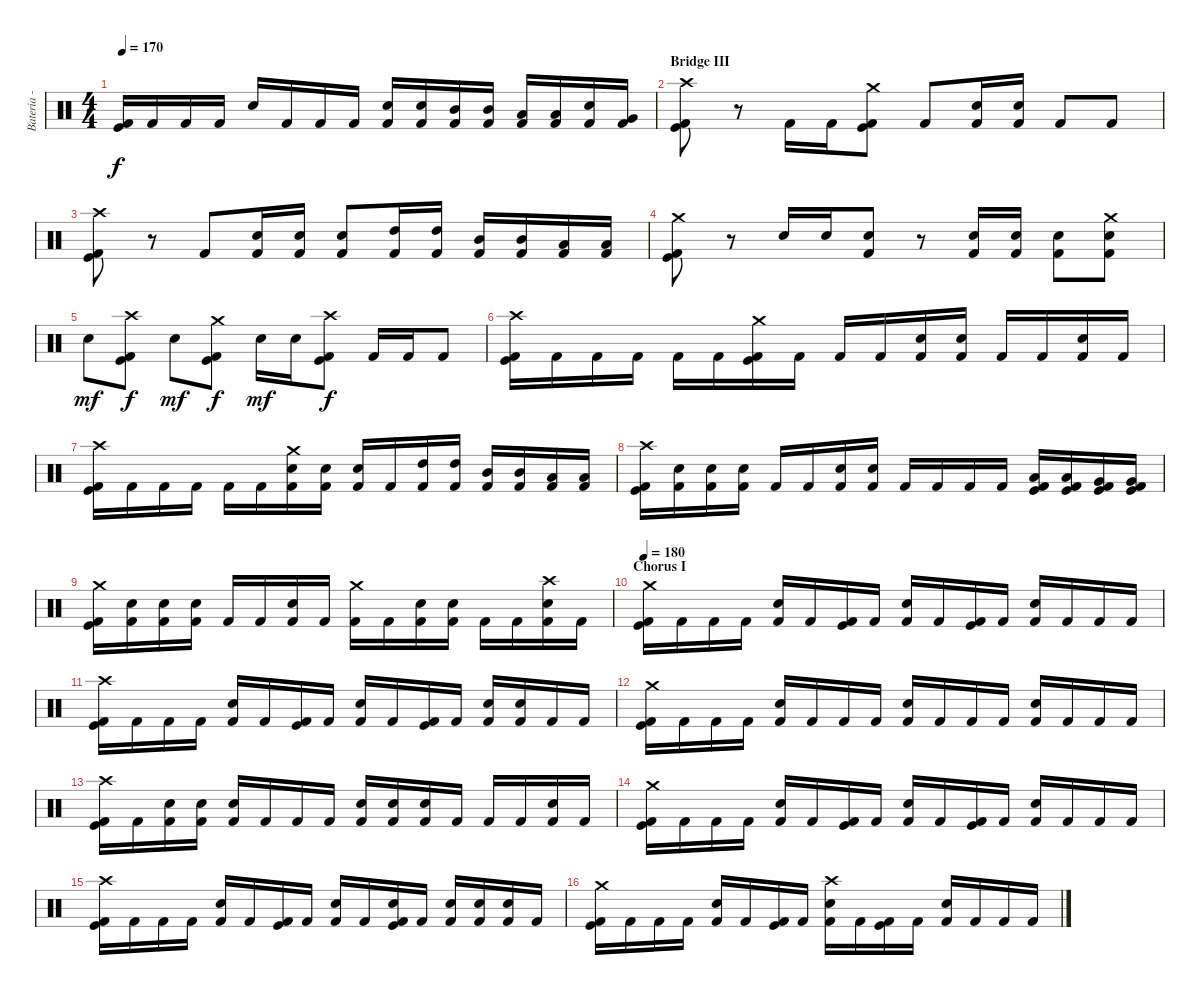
\track ("Bateria - Drums" "Bateria - ") {instrument percussion}
\staff {score}
\articulation defaults
\ts (4 4)
\tempo 170
\clef neutral
\ks c
("Kick (hit)" "Kick (hit) 2").16{dy f} "Kick (hit) 2".16 "Kick (hit) 2".16 "Kick (hit) 2".16 "Snare (hit) 2".16 "Kick (hit) 2".16 "Kick (hit) 2".16 "Kick (hit) 2".16 ("Electric Snare (hit)" "Kick (hit) 2").16 ("Electric Snare (hit)" "Kick (hit) 2").16 ("Mid Tom (hit)" "Kick (hit) 2").16 ("Mid Tom (hit)" "Kick (hit) 2").16 ("Low Tom (hit)" "Kick (hit) 2").16 ("Low Tom (hit)" "Kick (hit) 2").16 ("Electric Snare (hit)" "Kick (hit) 2").16 ("Very Low Tom (hit)" "Kick (hit) 2").16 |
\section ("" "Bridge III")
("Crash high (hit)" "Kick (hit)" "Kick (hit) 2").8 r.8 "Kick (hit) 2".16 "Kick (hit) 2".16 ("Crash medium (hit)" "Kick (hit)" "Kick (hit) 2").8 "Kick (hit) 2".8 ("Electric Snare (hit)" "Kick (hit) 2").16 ("Electric Snare (hit)" "Kick (hit) 2").16 "Kick (hit) 2".8 "Kick (hit) 2".8 |
("Crash high (hit)" "Kick (hit)" "Kick (hit) 2").8 r.8 "Kick (hit) 2".8 ("Electric Snare (hit)" "Kick (hit) 2").16 ("Electric Snare (hit)" "Kick (hit) 2").16 ("Electric Snare (hit)" "Kick (hit) 2").8 ("High Tom (hit)" "Kick (hit) 2").16 ("High Tom (hit)" "Kick (hit) 2").16 ("Mid Tom (hit)" "Kick (hit) 2").16 ("Mid Tom (hit)" "Kick (hit) 2").16 ("Low Tom (hit)" "Kick (hit) 2").16 ("Low Tom (hit)" "Kick (hit) 2").16 |
("Crash medium (hit)" "Kick (hit)" "Kick (hit) 2").8 r.8 "Electric Snare (hit)".16 "Electric Snare (hit)".16 ("Electric Snare (hit)" "Kick (hit) 2").8 r.8 ("Snare (hit) 2" "Kick (hit) 2").16 ("Snare (hit) 2" "Kick (hit) 2").16 ("Snare (hit) 2" "Kick (hit) 2").8 ("Crash medium (hit)" "Snare (hit) 2" "Kick (hit) 2").8 |
"Snare (hit) 2".8{dy mf} ("Crash high (hit)" "Kick (hit)" "Kick (hit) 2").8{dy f} "Snare (hit) 2".8{dy mf} ("Crash medium (hit)" "Kick (hit)" "Kick (hit) 2").8{dy f} "Snare (hit) 2".16{dy mf} "Snare (hit) 2".16 ("Crash high (hit)" "Kick (hit)" "Kick (hit) 2").8{dy f} "Kick (hit) 2".16 "Kick (hit) 2".16 "Kick (hit) 2".8 |
("Crash high (hit)" "Kick (hit)" "Kick (hit) 2").16 "Kick (hit) 2".16 "Kick (hit) 2".16 "Kick (hit) 2".16 "Kick (hit) 2".16 "Kick (hit) 2".16 ("Crash medium (hit)" "Kick (hit)" "Kick (hit) 2").16 "Kick (hit) 2".16 "Kick (hit) 2".16 "Kick (hit) 2".16 ("Electric Snare (hit)" "Kick (hit) 2").16 ("Electric Snare (hit)" "Kick (hit) 2").16 "Kick (hit) 2".16 "Kick (hit) 2".16 ("Electric Snare (hit)" "Kick (hit) 2").16 "Kick (hit) 2".16 |
("Crash high (hit)" "Kick (hit)" "Kick (hit) 2").16 "Kick (hit) 2".16 "Kick (hit) 2".16 "Kick (hit) 2".16 "Kick (hit) 2".16 "Kick (hit) 2".16 ("Crash medium (hit)" "Electric Snare (hit)" "Kick (hit) 2").16 ("Electric Snare (hit)" "Kick (hit) 2").16 ("Electric Snare (hit)" "Kick (hit) 2").16 "Kick (hit) 2".16 ("High Tom (hit)" "Kick (hit) 2").16 ("High Tom (hit)" "Kick (hit) 2").16 ("Mid Tom (hit)" "Kick (hit) 2").16 ("Mid Tom (hit)" "Kick (hit) 2").16 ("Low Tom (hit)" "Kick (hit) 2").16 ("Low Tom (hit)" "Kick (hit) 2").16 |
("Crash high (hit)" "Kick (hit)" "Kick (hit) 2").16 ("Snare (hit) 2" "Kick (hit) 2").16 ("Snare (hit) 2" "Kick (hit) 2").16 ("Snare (hit) 2" "Kick (hit) 2").16 "Kick (hit) 2".16 "Kick (hit) 2".16 ("Electric Snare (hit)" "Kick (hit) 2").16 ("Electric Snare (hit)" "Kick (hit) 2").16 "Kick (hit) 2".16 "Kick (hit) 2".16 "Kick (hit) 2".16 "Kick (hit) 2".16 ("Low Tom (hit)" "Kick (hit)" "Kick (hit) 2").16 ("Low Tom (hit)" "Kick (hit)" "Kick (hit) 2").16 ("Very Low Tom (hit)" "Kick (hit)" "Kick (hit) 2").16 ("Very Low Tom (hit)" "Kick (hit)" "Kick (hit) 2").16 |
("Crash medium (hit)" "Kick (hit)" "Kick (hit) 2").16 ("Snare (hit) 2" "Kick (hit) 2").16 ("Snare (hit) 2" "Kick (hit) 2").16 ("Snare (hit) 2" "Kick (hit) 2").16 "Kick (hit) 2".16 "Kick (hit) 2".16 ("Electric Snare (hit)" "Kick (hit) 2").16 "Kick (hit) 2".16 ("Crash medium (hit)" "Kick (hit) 2").16 "Kick (hit) 2".16 ("Electric Snare (hit)" "Kick (hit) 2").16 ("Electric Snare (hit)" "Kick (hit) 2").16 "Kick (hit) 2".16 "Kick (hit) 2".16 ("Crash high (hit)" "Snare (hit) 2" "Kick (hit) 2").16 "Kick (hit) 2".16 |
\section ("" "Chorus I")
\tempo 180
("Crash medium (hit)" "Kick (hit)" "Kick (hit) 2").16 "Kick (hit) 2".16 "Kick (hit) 2".16 "Kick (hit) 2".16 ("Snare (hit) 2" "Kick (hit) 2").16 "Kick (hit) 2".16 ("Kick (hit)" "Kick (hit) 2").16 "Kick (hit) 2".16 ("Snare (hit) 2" "Kick (hit) 2").16 "Kick (hit) 2".16 ("Kick (hit)" "Kick (hit) 2").16 "Kick (hit) 2".16 ("Snare (hit) 2" "Kick (hit) 2").16 "Kick (hit) 2".16 "Kick (hit) 2".16 "Kick (hit) 2".16 |
("Crash high (hit)" "Kick (hit)" "Kick (hit) 2").16 "Kick (hit) 2".16 "Kick (hit) 2".16 "Kick (hit) 2".16 ("Snare (hit) 2" "Kick (hit) 2").16 "Kick (hit) 2".16 ("Kick (hit)" "Kick (hit) 2").16 "Kick (hit) 2".16 ("Snare (hit) 2" "Kick (hit) 2").16 "Kick (hit) 2".16 ("Kick (hit)" "Kick (hit) 2").16 "Kick (hit) 2".16 ("Snare (hit) 2" "Kick (hit) 2").16 ("Snare (hit) 2" "Kick (hit) 2").16 "Kick (hit) 2".16 "Kick (hit) 2".16 |
("Crash medium (hit)" "Kick (hit)" "Kick (hit) 2").16 "Kick (hit) 2".16 "Kick (hit) 2".16 "Kick (hit) 2".16 ("Snare (hit) 2" "Kick (hit) 2").16 "Kick (hit) 2".16 "Kick (hit) 2".16 "Kick (hit) 2".16 ("Snare (hit) 2" "Kick (hit) 2").16 "Kick (hit) 2".16 "Kick (hit) 2".16 "Kick (hit) 2".16 ("Snare (hit) 2" "Kick (hit) 2").16 "Kick (hit) 2".16 "Kick (hit) 2".16 "Kick (hit) 2".16 |
("Crash high (hit)" "Kick (hit)" "Kick (hit) 2").16 "Kick (hit) 2".16 ("Electric Snare (hit)" "Kick (hit) 2").16 ("Electric Snare (hit)" "Kick (hit) 2").16 ("Snare (hit) 2" "Kick (hit) 2").16 "Kick (hit) 2".16 "Kick (hit) 2".16 "Kick (hit) 2".16 ("Electric Snare (hit)" "Kick (hit) 2").16 ("Electric Snare (hit)" "Kick (hit) 2").16 ("Electric Snare (hit)" "Kick (hit) 2").16 "Kick (hit) 2".16 "Kick (hit) 2".16 "Kick (hit) 2".16 ("Snare (hit) 2" "Kick (hit) 2").16 "Kick (hit) 2".16 |
("Crash medium (hit)" "Kick (hit)" "Kick (hit) 2").16 "Kick (hit) 2".16 "Kick (hit) 2".16 "Kick (hit) 2".16 ("Snare (hit) 2" "Kick (hit) 2").16 "Kick (hit) 2".16 ("Kick (hit)" "Kick (hit) 2").16 "Kick (hit) 2".16 ("Snare (hit) 2" "Kick (hit) 2").16 "Kick (hit) 2".16 ("Kick (hit)" "Kick (hit) 2").16 "Kick (hit) 2".16 ("Snare (hit) 2" "Kick (hit) 2").16 "Kick (hit) 2".16 "Kick (hit) 2".16 "Kick (hit) 2".16 |
("Crash high (hit)" "Kick (hit)" "Kick (hit) 2").16 "Kick (hit) 2".16 "Kick (hit) 2".16 "Kick (hit) 2".16 ("Snare (hit) 2" "Kick (hit) 2").16 "Kick (hit) 2".16 ("Kick (hit)" "Kick (hit) 2").16 "Kick (hit) 2".16 ("Snare (hit) 2" "Kick (hit) 2").16 "Kick (hit) 2".16 ("Snare (hit) 2" "Kick (hit)" "Kick (hit) 2").16 "Kick (hit) 2".16 ("Snare (hit) 2" "Kick (hit) 2").16 ("Snare (hit) 2" "Kick (hit) 2").16 ("Snare (hit) 2" "Kick (hit) 2").16 "Kick (hit) 2".16 |
("Crash medium (hit)" "Kick (hit)" "Kick (hit) 2").16 "Kick (hit) 2".16 "Kick (hit) 2".16 "Kick (hit) 2".16 ("Snare (hit) 2" "Kick (hit) 2").16 "Kick (hit) 2".16 ("Kick (hit)" "Kick (hit) 2").16 "Kick (hit) 2".16 ("Crash high (hit)" "Snare (hit) 2" "Kick (hit) 2").16 "Kick (hit) 2".16 ("Kick (hit)" "Kick (hit) 2").16 "Kick (hit) 2".16 ("Snare (hit) 2" "Kick (hit) 2").16 "Kick (hit) 2".16 "Kick (hit) 2".16 "Kick (hit) 2".16
